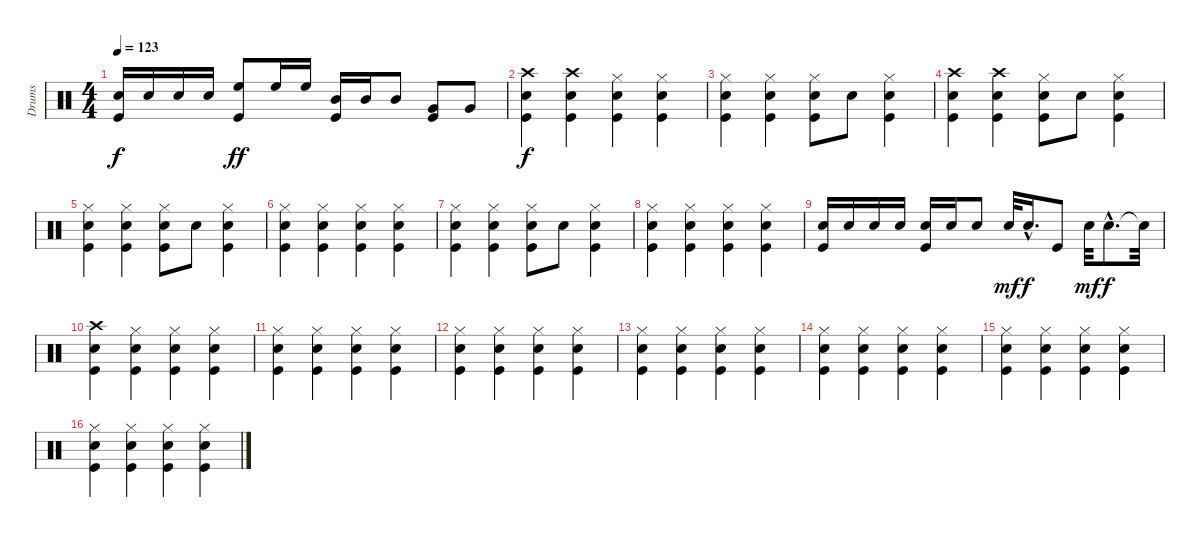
\track ("Drums" "Drums") {instrument percussion}
\staff {score}
\articulation defaults
\ts (4 4)
\tempo 123
\clef neutral
\ks c
("Electric Snare (hit)" "Kick (hit)").16{dy f} "Electric Snare (hit)".16 "Electric Snare (hit)".16 "Electric Snare (hit)".16 ("High Floor Tom (hit)" "Kick (hit)").8{dy ff} "High Floor Tom (hit)".16 "High Floor Tom (hit)".16 ("Mid Tom (hit)" "Kick (hit)").16 "Mid Tom (hit)".16 "Mid Tom (hit)".8 ("Very Low Tom (hit)" "Kick (hit)").8 "Very Low Tom (hit)".8 |
("Crash high (hit)" "Kick (hit)" "Electric Snare (hit)").4{dy f} ("Crash high (hit)" "Kick (hit)" "Electric Snare (hit)").4 ("Kick (hit)" "Electric Snare (hit)" "Hi-Hat (closed)").4 ("Kick (hit)" "Electric Snare (hit)" "Hi-Hat (closed)").4 |
("Electric Snare (hit)" "Kick (hit)" "Hi-Hat (closed)").4 ("Kick (hit)" "Electric Snare (hit)" "Hi-Hat (closed)").4 ("Kick (hit)" "Electric Snare (hit)" "Hi-Hat (closed)").8 "Electric Snare (hit)".8 ("Kick (hit)" "Electric Snare (hit)" "Hi-Hat (closed)").4 |
("Crash high (hit)" "Electric Snare (hit)" "Kick (hit)").4 ("Crash high (hit)" "Kick (hit)" "Electric Snare (hit)").4 ("Kick (hit)" "Electric Snare (hit)" "Hi-Hat (closed)").8 "Electric Snare (hit)".8 ("Kick (hit)" "Electric Snare (hit)" "Hi-Hat (closed)").4 |
("Electric Snare (hit)" "Kick (hit)" "Hi-Hat (closed)").4 ("Kick (hit)" "Electric Snare (hit)" "Hi-Hat (closed)").4 ("Kick (hit)" "Electric Snare (hit)" "Hi-Hat (closed)").8 "Electric Snare (hit)".8 ("Kick (hit)" "Electric Snare (hit)" "Hi-Hat (closed)").4 |
("Kick (hit)" "Electric Snare (hit)" "Hi-Hat (closed)").4 ("Kick (hit)" "Electric Snare (hit)" "Hi-Hat (closed)").4 ("Kick (hit)" "Electric Snare (hit)" "Hi-Hat (closed)").4 ("Kick (hit)" "Electric Snare (hit)" "Hi-Hat (closed)").4 |
("Electric Snare (hit)" "Kick (hit)" "Hi-Hat (closed)").4 ("Kick (hit)" "Electric Snare (hit)" "Hi-Hat (closed)").4 ("Kick (hit)" "Electric Snare (hit)" "Hi-Hat (closed)").8 "Electric Snare (hit)".8 ("Kick (hit)" "Electric Snare (hit)" "Hi-Hat (closed)").4 |
("Kick (hit)" "Electric Snare (hit)" "Hi-Hat (closed)").4 ("Kick (hit)" "Electric Snare (hit)" "Hi-Hat (closed)").4 ("Kick (hit)" "Electric Snare (hit)" "Hi-Hat (closed)").4 ("Kick (hit)" "Electric Snare (hit)" "Hi-Hat (closed)").4 |
("Kick (hit)" "Electric Snare (hit)").16 "Electric Snare (hit)".16 "Electric Snare (hit)".16 "Electric Snare (hit)".16 ("Kick (hit)" "Electric Snare (hit)").16 "Electric Snare (hit)".16 "Electric Snare (hit)".8 "Electric Snare (hit)".32{dy mf} "Electric Snare (hit)"{hac}.16{d dy f} "Kick (hit)".8 "Electric Snare (hit)".32{dy mf} "Electric Snare (hit)"{hac}.8{d dy f} "Snare (hit)"{t}.32 |
("Crash high (hit)" "Kick (hit)" "Electric Snare (hit)").4 ("Hi-Hat (closed)" "Kick (hit)" "Electric Snare (hit)").4 ("Hi-Hat (closed)" "Kick (hit)" "Electric Snare (hit)").4 ("Hi-Hat (closed)" "Kick (hit)" "Electric Snare (hit)").4 |
("Kick (hit)" "Electric Snare (hit)" "Hi-Hat (closed)").4 ("Kick (hit)" "Electric Snare (hit)" "Hi-Hat (closed)").4 ("Kick (hit)" "Electric Snare (hit)" "Hi-Hat (closed)").4 ("Kick (hit)" "Electric Snare (hit)" "Hi-Hat (closed)").4 |
("Kick (hit)" "Electric Snare (hit)" "Hi-Hat (closed)").4 ("Kick (hit)" "Electric Snare (hit)" "Hi-Hat (closed)").4 ("Kick (hit)" "Electric Snare (hit)" "Hi-Hat (closed)").4 ("Kick (hit)" "Electric Snare (hit)" "Hi-Hat (closed)").4 |
("Kick (hit)" "Electric Snare (hit)" "Hi-Hat (closed)").4 ("Kick (hit)" "Electric Snare (hit)" "Hi-Hat (closed)").4 ("Kick (hit)" "Electric Snare (hit)" "Hi-Hat (closed)").4 ("Kick (hit)" "Electric Snare (hit)" "Hi-Hat (closed)").4 |
("Kick (hit)" "Electric Snare (hit)" "Hi-Hat (closed)").4 ("Kick (hit)" "Electric Snare (hit)" "Hi-Hat (closed)").4 ("Kick (hit)" "Electric Snare (hit)" "Hi-Hat (closed)").4 ("Kick (hit)" "Electric Snare (hit)" "Hi-Hat (closed)").4 |
("Kick (hit)" "Electric Snare (hit)" "Hi-Hat (closed)").4 ("Kick (hit)" "Electric Snare (hit)" "Hi-Hat (closed)").4 ("Kick (hit)" "Electric Snare (hit)" "Hi-Hat (closed)").4 ("Kick (hit)" "Electric Snare (hit)" "Hi-Hat (closed)").4 |
("Kick (hit)" "Electric Snare (hit)" "Hi-Hat (closed)").4 ("Kick (hit)" "Electric Snare (hit)" "Hi-Hat (closed)").4 ("Kick (hit)" "Electric Snare (hit)" "Hi-Hat (closed)").4 ("Kick (hit)" "Electric Snare (hit)" "Hi-Hat (closed)").4
